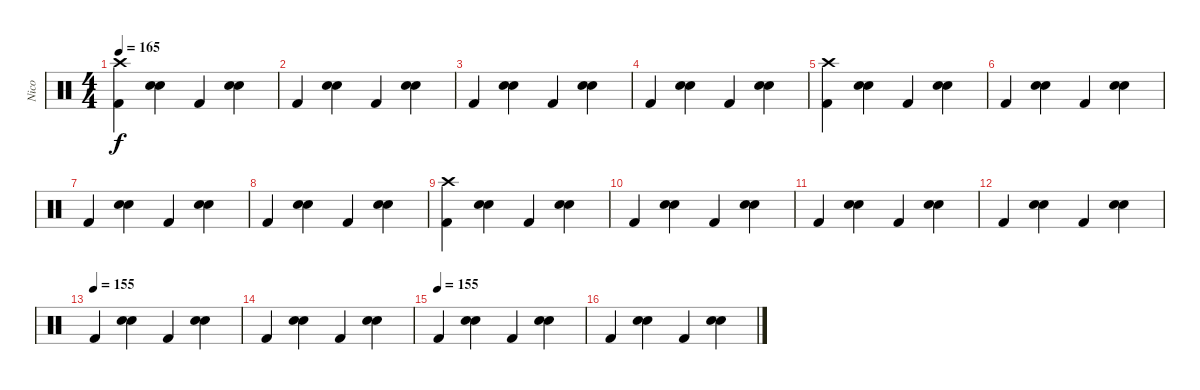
\track ("Nico" "Nico") {instrument percussion}
\staff {score}
\articulation defaults
\ts (4 4)
\tempo 165
\clef neutral
\ks c
("Kick (hit) 2" "Crash high (hit)").4{dy f} ("Electric Snare (hit)" "Electric Snare (hit)").4{bd 240} "Kick (hit) 2".4 ("Electric Snare (hit)" "Electric Snare (hit)").4{bd 240} |
"Kick (hit) 2".4 ("Electric Snare (hit)" "Electric Snare (hit)").4{bd 240} "Kick (hit) 2".4 ("Electric Snare (hit)" "Electric Snare (hit)").4{bd 240} |
"Kick (hit) 2".4 ("Electric Snare (hit)" "Electric Snare (hit)").4{bd 240} "Kick (hit) 2".4 ("Electric Snare (hit)" "Electric Snare (hit)").4{bd 240} |
"Kick (hit) 2".4 ("Electric Snare (hit)" "Electric Snare (hit)").4{bd 240} "Kick (hit) 2".4 ("Electric Snare (hit)" "Electric Snare (hit)").4{bd 240} |
("Kick (hit) 2" "Crash high (hit)").4 ("Electric Snare (hit)" "Electric Snare (hit)").4{bd 240} "Kick (hit) 2".4 ("Electric Snare (hit)" "Electric Snare (hit)").4{bd 240} |
"Kick (hit) 2".4 ("Electric Snare (hit)" "Electric Snare (hit)").4{bd 240} "Kick (hit) 2".4 ("Electric Snare (hit)" "Electric Snare (hit)").4{bd 240} |
"Kick (hit) 2".4 ("Electric Snare (hit)" "Electric Snare (hit)").4{bd 240} "Kick (hit) 2".4 ("Electric Snare (hit)" "Electric Snare (hit)").4{bd 240} |
"Kick (hit) 2".4 ("Electric Snare (hit)" "Electric Snare (hit)").4{bd 240} "Kick (hit) 2".4 ("Electric Snare (hit)" "Electric Snare (hit)").4{bd 240} |
("Kick (hit) 2" "Crash high (hit)").4 ("Electric Snare (hit)" "Electric Snare (hit)").4{bd 240} "Kick (hit) 2".4 ("Electric Snare (hit)" "Electric Snare (hit)").4{bd 240} |
"Kick (hit) 2".4 ("Electric Snare (hit)" "Electric Snare (hit)").4{bd 240} "Kick (hit) 2".4 ("Electric Snare (hit)" "Electric Snare (hit)").4{bd 240} |
"Kick (hit) 2".4 ("Electric Snare (hit)" "Electric Snare (hit)").4{bd 240} "Kick (hit) 2".4 ("Electric Snare (hit)" "Electric Snare (hit)").4{bd 240} |
"Kick (hit) 2".4 ("Electric Snare (hit)" "Electric Snare (hit)").4{bd 240} "Kick (hit) 2".4 ("Electric Snare (hit)" "Electric Snare (hit)").4{bd 240} |
\tempo (155)
"Kick (hit) 2".4 ("Electric Snare (hit)" "Electric Snare (hit)").4{bd 240} "Kick (hit) 2".4 ("Electric Snare (hit)" "Electric Snare (hit)").4{bd 240} |
"Kick (hit) 2".4 ("Electric Snare (hit)" "Electric Snare (hit)").4{bd 240} "Kick (hit) 2".4 ("Electric Snare (hit)" "Electric Snare (hit)").4{bd 240} |
\tempo (155)
"Kick (hit) 2".4 ("Electric Snare (hit)" "Electric Snare (hit)").4{bd 240} "Kick (hit) 2".4 ("Electric Snare (hit)" "Electric Snare (hit)").4{bd 240} |
"Kick (hit) 2".4 ("Electric Snare (hit)" "Electric Snare (hit)").4{bd 240} "Kick (hit) 2".4 ("Electric Snare (hit)" "Electric Snare (hit)").4{bd 240}
